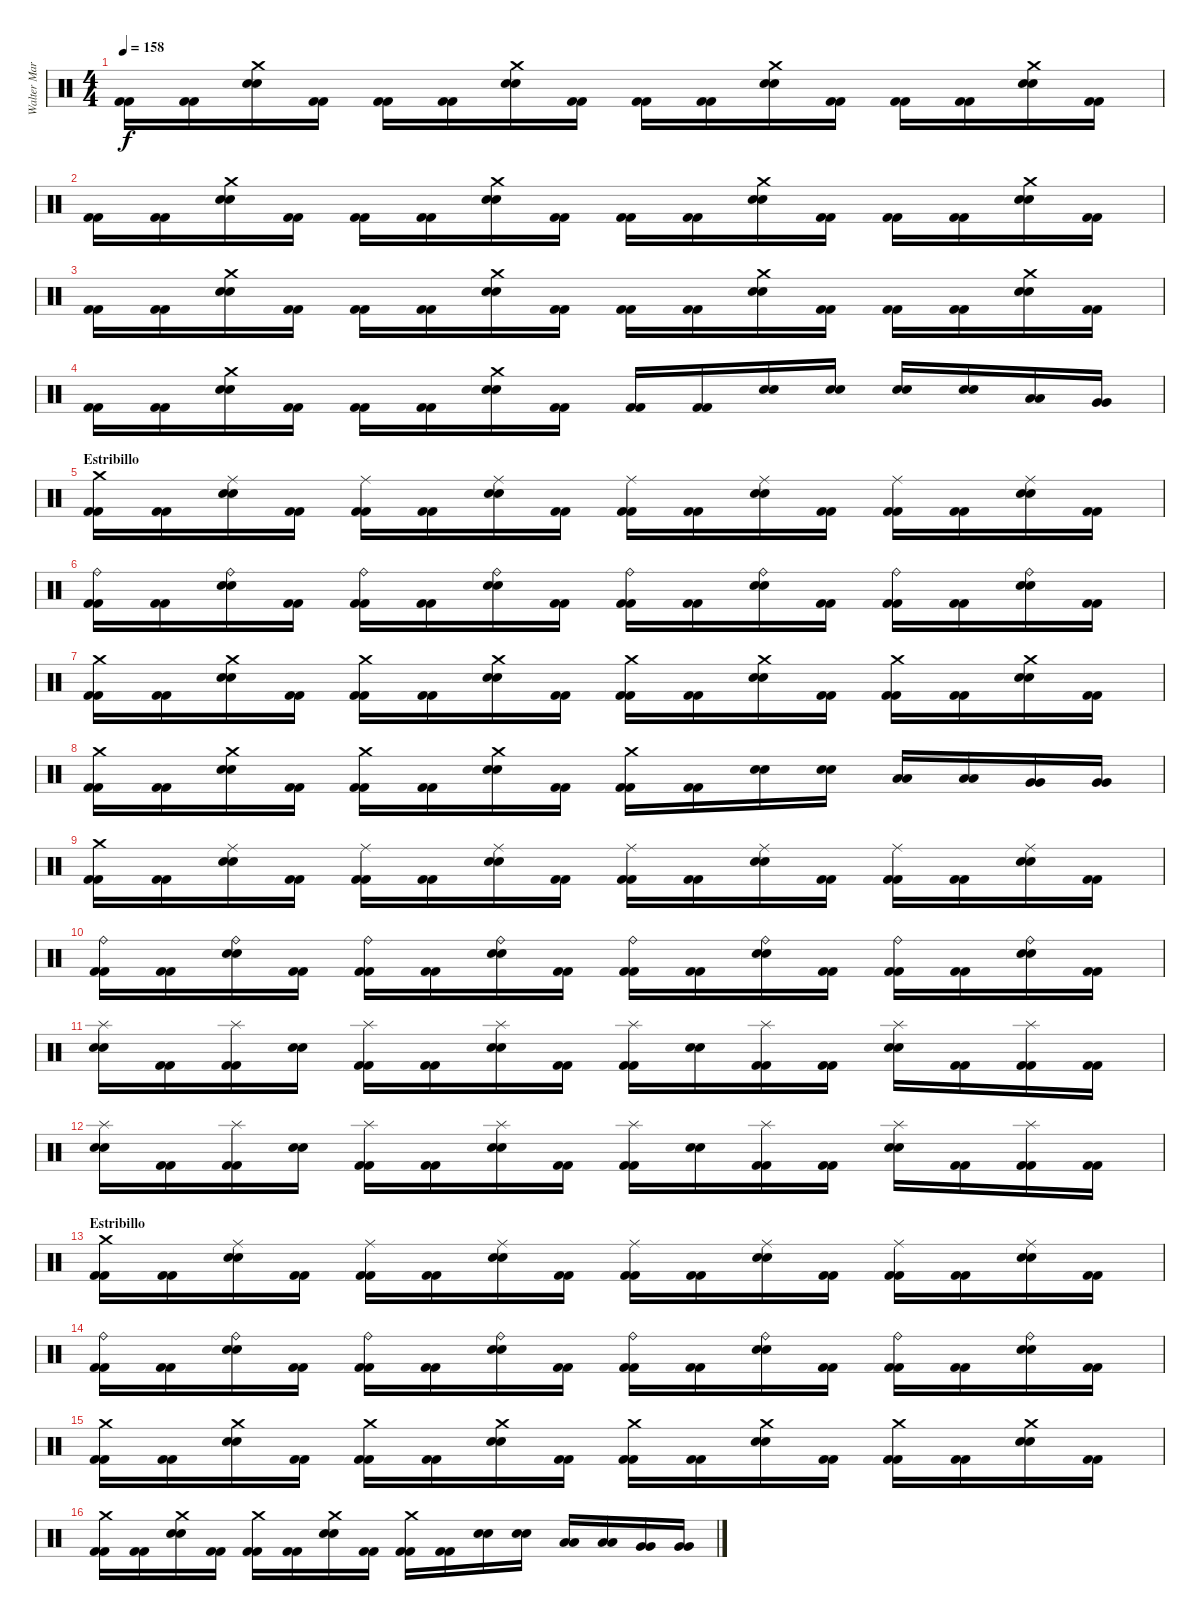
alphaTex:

\track ("Walter Martinez (Bateria)" "Walter Mar") {instrument percussion}
\staff {score}
\articulation defaults
\ts (4 4)
\tempo 158
\clef neutral
\ks c
("Kick (hit) 2" "Kick (hit) 2").16{dy f} ("Kick (hit) 2" "Kick (hit) 2").16 ("Crash medium (hit)" "Snare (hit) 2" "Snare (hit) 2").16 ("Kick (hit) 2" "Kick (hit) 2").16 ("Kick (hit) 2" "Kick (hit) 2").16 ("Kick (hit) 2" "Kick (hit) 2").16 ("Crash medium (hit)" "Snare (hit) 2" "Snare (hit) 2").16 ("Kick (hit) 2" "Kick (hit) 2").16 ("Kick (hit) 2" "Kick (hit) 2").16 ("Kick (hit) 2" "Kick (hit) 2").16 ("Crash medium (hit)" "Snare (hit) 2" "Snare (hit) 2").16 ("Kick (hit) 2" "Kick (hit) 2").16 ("Kick (hit) 2" "Kick (hit) 2").16 ("Kick (hit) 2" "Kick (hit) 2").16 ("Crash medium (hit)" "Snare (hit) 2" "Snare (hit) 2").16 ("Kick (hit) 2" "Kick (hit) 2").16 |
("Kick (hit) 2" "Kick (hit) 2").16 ("Kick (hit) 2" "Kick (hit) 2").16 ("Crash medium (hit)" "Snare (hit) 2" "Snare (hit) 2").16 ("Kick (hit) 2" "Kick (hit) 2").16 ("Kick (hit) 2" "Kick (hit) 2").16 ("Kick (hit) 2" "Kick (hit) 2").16 ("Crash medium (hit)" "Snare (hit) 2" "Snare (hit) 2").16 ("Kick (hit) 2" "Kick (hit) 2").16 ("Kick (hit) 2" "Kick (hit) 2").16 ("Kick (hit) 2" "Kick (hit) 2").16 ("Crash medium (hit)" "Snare (hit) 2" "Snare (hit) 2").16 ("Kick (hit) 2" "Kick (hit) 2").16 ("Kick (hit) 2" "Kick (hit) 2").16 ("Kick (hit) 2" "Kick (hit) 2").16 ("Crash medium (hit)" "Snare (hit) 2" "Snare (hit) 2").16 ("Kick (hit) 2" "Kick (hit) 2").16 |
("Kick (hit) 2" "Kick (hit) 2").16 ("Kick (hit) 2" "Kick (hit) 2").16 ("Crash medium (hit)" "Snare (hit) 2" "Snare (hit) 2").16 ("Kick (hit) 2" "Kick (hit) 2").16 ("Kick (hit) 2" "Kick (hit) 2").16 ("Kick (hit) 2" "Kick (hit) 2").16 ("Crash medium (hit)" "Snare (hit) 2" "Snare (hit) 2").16 ("Kick (hit) 2" "Kick (hit) 2").16 ("Kick (hit) 2" "Kick (hit) 2").16 ("Kick (hit) 2" "Kick (hit) 2").16 ("Crash medium (hit)" "Snare (hit) 2" "Snare (hit) 2").16 ("Kick (hit) 2" "Kick (hit) 2").16 ("Kick (hit) 2" "Kick (hit) 2").16 ("Kick (hit) 2" "Kick (hit) 2").16 ("Crash medium (hit)" "Snare (hit) 2" "Snare (hit) 2").16 ("Kick (hit) 2" "Kick (hit) 2").16 |
("Kick (hit) 2" "Kick (hit) 2").16 ("Kick (hit) 2" "Kick (hit) 2").16 ("Crash medium (hit)" "Snare (hit) 2" "Snare (hit) 2").16 ("Kick (hit) 2" "Kick (hit) 2").16 ("Kick (hit) 2" "Kick (hit) 2").16 ("Kick (hit) 2" "Kick (hit) 2").16 ("Crash medium (hit)" "Snare (hit) 2" "Snare (hit) 2").16 ("Kick (hit) 2" "Kick (hit) 2").16 ("Kick (hit) 2" "Kick (hit) 2").16 ("Kick (hit) 2" "Kick (hit) 2").16 ("Snare (hit) 2" "Snare (hit) 2").16 ("Snare (hit) 2" "Snare (hit) 2").16 ("Snare (hit) 2" "Snare (hit) 2").16 ("Snare (hit) 2" "Snare (hit) 2").16 ("Low Tom (hit)" "Low Tom (hit)").16 ("Very Low Tom (hit)" "Very Low Tom (hit)").16 |
\section ("" "Estribillo")
("Crash medium (hit)" "Kick (hit) 2" "Kick (hit) 2").16 ("Kick (hit) 2" "Kick (hit) 2").16 ("Ride (middle)" "Snare (hit) 2" "Snare (hit) 2").16 ("Kick (hit) 2" "Kick (hit) 2").16 ("Ride (middle)" "Kick (hit) 2" "Kick (hit) 2").16 ("Kick (hit) 2" "Kick (hit) 2").16 ("Ride (middle)" "Snare (hit) 2" "Snare (hit) 2").16 ("Kick (hit) 2" "Kick (hit) 2").16 ("Ride (middle)" "Kick (hit) 2" "Kick (hit) 2").16 ("Kick (hit) 2" "Kick (hit) 2").16 ("Ride (middle)" "Snare (hit) 2" "Snare (hit) 2").16 ("Kick (hit) 2" "Kick (hit) 2").16 ("Ride (middle)" "Kick (hit) 2" "Kick (hit) 2").16 ("Kick (hit) 2" "Kick (hit) 2").16 ("Ride (middle)" "Snare (hit) 2" "Snare (hit) 2").16 ("Kick (hit) 2" "Kick (hit) 2").16 |
("Ride (bell)" "Kick (hit) 2" "Kick (hit) 2").16 ("Kick (hit) 2" "Kick (hit) 2").16 ("Ride (bell)" "Snare (hit) 2" "Snare (hit) 2").16 ("Kick (hit) 2" "Kick (hit) 2").16 ("Ride (bell)" "Kick (hit) 2" "Kick (hit) 2").16 ("Kick (hit) 2" "Kick (hit) 2").16 ("Ride (bell)" "Snare (hit) 2" "Snare (hit) 2").16 ("Kick (hit) 2" "Kick (hit) 2").16 ("Ride (bell)" "Kick (hit) 2" "Kick (hit) 2").16 ("Kick (hit) 2" "Kick (hit) 2").16 ("Ride (bell)" "Snare (hit) 2" "Snare (hit) 2").16 ("Kick (hit) 2" "Kick (hit) 2").16 ("Ride (bell)" "Kick (hit) 2" "Kick (hit) 2").16 ("Kick (hit) 2" "Kick (hit) 2").16 ("Ride (bell)" "Snare (hit) 2" "Snare (hit) 2").16 ("Kick (hit) 2" "Kick (hit) 2").16 |
("Crash medium (hit)" "Kick (hit) 2" "Kick (hit) 2").16 ("Kick (hit) 2" "Kick (hit) 2").16 ("Crash medium (hit)" "Snare (hit) 2" "Snare (hit) 2").16 ("Kick (hit) 2" "Kick (hit) 2").16 ("Crash medium (hit)" "Kick (hit) 2" "Kick (hit) 2").16 ("Kick (hit) 2" "Kick (hit) 2").16 ("Crash medium (hit)" "Snare (hit) 2" "Snare (hit) 2").16 ("Kick (hit) 2" "Kick (hit) 2").16 ("Crash medium (hit)" "Kick (hit) 2" "Kick (hit) 2").16 ("Kick (hit) 2" "Kick (hit) 2").16 ("Crash medium (hit)" "Snare (hit) 2" "Snare (hit) 2").16 ("Kick (hit) 2" "Kick (hit) 2").16 ("Crash medium (hit)" "Kick (hit) 2" "Kick (hit) 2").16 ("Kick (hit) 2" "Kick (hit) 2").16 ("Crash medium (hit)" "Snare (hit) 2" "Snare (hit) 2").16 ("Kick (hit) 2" "Kick (hit) 2").16 |
("Crash medium (hit)" "Kick (hit) 2" "Kick (hit) 2").16 ("Kick (hit) 2" "Kick (hit) 2").16 ("Crash medium (hit)" "Snare (hit) 2" "Snare (hit) 2").16 ("Kick (hit) 2" "Kick (hit) 2").16 ("Crash medium (hit)" "Kick (hit) 2" "Kick (hit) 2").16 ("Kick (hit) 2" "Kick (hit) 2").16 ("Crash medium (hit)" "Snare (hit) 2" "Snare (hit) 2").16 ("Kick (hit) 2" "Kick (hit) 2").16 ("Crash medium (hit)" "Kick (hit) 2" "Kick (hit) 2").16 ("Kick (hit) 2" "Kick (hit) 2").16 ("Snare (hit) 2" "Snare (hit) 2").16 ("Snare (hit) 2" "Snare (hit) 2").16 ("Low Tom (hit)" "Low Tom (hit)").16 ("Low Tom (hit)" "Low Tom (hit)").16 ("Very Low Tom (hit)" "Very Low Tom (hit)").16 ("Very Low Tom (hit)" "Very Low Tom (hit)").16 |
("Crash medium (hit)" "Kick (hit) 2" "Kick (hit) 2").16 ("Kick (hit) 2" "Kick (hit) 2").16 ("Ride (middle)" "Snare (hit) 2" "Snare (hit) 2").16 ("Kick (hit) 2" "Kick (hit) 2").16 ("Ride (middle)" "Kick (hit) 2" "Kick (hit) 2").16 ("Kick (hit) 2" "Kick (hit) 2").16 ("Ride (middle)" "Snare (hit) 2" "Snare (hit) 2").16 ("Kick (hit) 2" "Kick (hit) 2").16 ("Ride (middle)" "Kick (hit) 2" "Kick (hit) 2").16 ("Kick (hit) 2" "Kick (hit) 2").16 ("Ride (middle)" "Snare (hit) 2" "Snare (hit) 2").16 ("Kick (hit) 2" "Kick (hit) 2").16 ("Ride (middle)" "Kick (hit) 2" "Kick (hit) 2").16 ("Kick (hit) 2" "Kick (hit) 2").16 ("Ride (middle)" "Snare (hit) 2" "Snare (hit) 2").16 ("Kick (hit) 2" "Kick (hit) 2").16 |
("Ride (bell)" "Kick (hit) 2" "Kick (hit) 2").16 ("Kick (hit) 2" "Kick (hit) 2").16 ("Ride (bell)" "Snare (hit) 2" "Snare (hit) 2").16 ("Kick (hit) 2" "Kick (hit) 2").16 ("Ride (bell)" "Kick (hit) 2" "Kick (hit) 2").16 ("Kick (hit) 2" "Kick (hit) 2").16 ("Ride (bell)" "Snare (hit) 2" "Snare (hit) 2").16 ("Kick (hit) 2" "Kick (hit) 2").16 ("Ride (bell)" "Kick (hit) 2" "Kick (hit) 2").16 ("Kick (hit) 2" "Kick (hit) 2").16 ("Ride (bell)" "Snare (hit) 2" "Snare (hit) 2").16 ("Kick (hit) 2" "Kick (hit) 2").16 ("Ride (bell)" "Kick (hit) 2" "Kick (hit) 2").16 ("Kick (hit) 2" "Kick (hit) 2").16 ("Ride (bell)" "Snare (hit) 2" "Snare (hit) 2").16 ("Kick (hit) 2" "Kick (hit) 2").16 |
("Splash (hit)" "Snare (hit) 2" "Snare (hit) 2").16 ("Kick (hit) 2" "Kick (hit) 2").16 ("Splash (hit)" "Kick (hit) 2" "Kick (hit) 2").16 ("Snare (hit) 2" "Snare (hit) 2").16 ("Splash (hit)" "Kick (hit) 2" "Kick (hit) 2").16 ("Kick (hit) 2" "Kick (hit) 2").16 ("Splash (hit)" "Snare (hit) 2" "Snare (hit) 2").16 ("Kick (hit) 2" "Kick (hit) 2").16 ("Splash (hit)" "Kick (hit) 2" "Kick (hit) 2").16 ("Snare (hit) 2" "Snare (hit) 2").16 ("Splash (hit)" "Kick (hit) 2" "Kick (hit) 2").16 ("Kick (hit) 2" "Kick (hit) 2").16 ("Splash (hit)" "Snare (hit) 2" "Snare (hit) 2").16 ("Kick (hit) 2" "Kick (hit) 2").16 ("Splash (hit)" "Kick (hit) 2" "Kick (hit) 2").16 ("Kick (hit) 2" "Kick (hit) 2").16 |
("Splash (hit)" "Snare (hit) 2" "Snare (hit) 2").16 ("Kick (hit) 2" "Kick (hit) 2").16 ("Splash (hit)" "Kick (hit) 2" "Kick (hit) 2").16 ("Snare (hit) 2" "Snare (hit) 2").16 ("Splash (hit)" "Kick (hit) 2" "Kick (hit) 2").16 ("Kick (hit) 2" "Kick (hit) 2").16 ("Splash (hit)" "Snare (hit) 2" "Snare (hit) 2").16 ("Kick (hit) 2" "Kick (hit) 2").16 ("Splash (hit)" "Kick (hit) 2" "Kick (hit) 2").16 ("Snare (hit) 2" "Snare (hit) 2").16 ("Splash (hit)" "Kick (hit) 2" "Kick (hit) 2").16 ("Kick (hit) 2" "Kick (hit) 2").16 ("Splash (hit)" "Snare (hit) 2" "Snare (hit) 2").16 ("Kick (hit) 2" "Kick (hit) 2").16 ("Splash (hit)" "Kick (hit) 2" "Kick (hit) 2").16 ("Kick (hit) 2" "Kick (hit) 2").16 |
\section ("" "Estribillo")
("Crash medium (hit)" "Kick (hit) 2" "Kick (hit) 2").16 ("Kick (hit) 2" "Kick (hit) 2").16 ("Ride (middle)" "Snare (hit) 2" "Snare (hit) 2").16 ("Kick (hit) 2" "Kick (hit) 2").16 ("Ride (middle)" "Kick (hit) 2" "Kick (hit) 2").16 ("Kick (hit) 2" "Kick (hit) 2").16 ("Ride (middle)" "Snare (hit) 2" "Snare (hit) 2").16 ("Kick (hit) 2" "Kick (hit) 2").16 ("Ride (middle)" "Kick (hit) 2" "Kick (hit) 2").16 ("Kick (hit) 2" "Kick (hit) 2").16 ("Ride (middle)" "Snare (hit) 2" "Snare (hit) 2").16 ("Kick (hit) 2" "Kick (hit) 2").16 ("Ride (middle)" "Kick (hit) 2" "Kick (hit) 2").16 ("Kick (hit) 2" "Kick (hit) 2").16 ("Ride (middle)" "Snare (hit) 2" "Snare (hit) 2").16 ("Kick (hit) 2" "Kick (hit) 2").16 |
("Ride (bell)" "Kick (hit) 2" "Kick (hit) 2").16 ("Kick (hit) 2" "Kick (hit) 2").16 ("Ride (bell)" "Snare (hit) 2" "Snare (hit) 2").16 ("Kick (hit) 2" "Kick (hit) 2").16 ("Ride (bell)" "Kick (hit) 2" "Kick (hit) 2").16 ("Kick (hit) 2" "Kick (hit) 2").16 ("Ride (bell)" "Snare (hit) 2" "Snare (hit) 2").16 ("Kick (hit) 2" "Kick (hit) 2").16 ("Ride (bell)" "Kick (hit) 2" "Kick (hit) 2").16 ("Kick (hit) 2" "Kick (hit) 2").16 ("Ride (bell)" "Snare (hit) 2" "Snare (hit) 2").16 ("Kick (hit) 2" "Kick (hit) 2").16 ("Ride (bell)" "Kick (hit) 2" "Kick (hit) 2").16 ("Kick (hit) 2" "Kick (hit) 2").16 ("Ride (bell)" "Snare (hit) 2" "Snare (hit) 2").16 ("Kick (hit) 2" "Kick (hit) 2").16 |
("Crash medium (hit)" "Kick (hit) 2" "Kick (hit) 2").16 ("Kick (hit) 2" "Kick (hit) 2").16 ("Crash medium (hit)" "Snare (hit) 2" "Snare (hit) 2").16 ("Kick (hit) 2" "Kick (hit) 2").16 ("Crash medium (hit)" "Kick (hit) 2" "Kick (hit) 2").16 ("Kick (hit) 2" "Kick (hit) 2").16 ("Crash medium (hit)" "Snare (hit) 2" "Snare (hit) 2").16 ("Kick (hit) 2" "Kick (hit) 2").16 ("Crash medium (hit)" "Kick (hit) 2" "Kick (hit) 2").16 ("Kick (hit) 2" "Kick (hit) 2").16 ("Crash medium (hit)" "Snare (hit) 2" "Snare (hit) 2").16 ("Kick (hit) 2" "Kick (hit) 2").16 ("Crash medium (hit)" "Kick (hit) 2" "Kick (hit) 2").16 ("Kick (hit) 2" "Kick (hit) 2").16 ("Crash medium (hit)" "Snare (hit) 2" "Snare (hit) 2").16 ("Kick (hit) 2" "Kick (hit) 2").16 |
("Crash medium (hit)" "Kick (hit) 2" "Kick (hit) 2").16 ("Kick (hit) 2" "Kick (hit) 2").16 ("Crash medium (hit)" "Snare (hit) 2" "Snare (hit) 2").16 ("Kick (hit) 2" "Kick (hit) 2").16 ("Crash medium (hit)" "Kick (hit) 2" "Kick (hit) 2").16 ("Kick (hit) 2" "Kick (hit) 2").16 ("Crash medium (hit)" "Snare (hit) 2" "Snare (hit) 2").16 ("Kick (hit) 2" "Kick (hit) 2").16 ("Crash medium (hit)" "Kick (hit) 2" "Kick (hit) 2").16 ("Kick (hit) 2" "Kick (hit) 2").16 ("Snare (hit) 2" "Snare (hit) 2").16 ("Snare (hit) 2" "Snare (hit) 2").16 ("Low Tom (hit)" "Low Tom (hit)").16 ("Low Tom (hit)" "Low Tom (hit)").16 ("Very Low Tom (hit)" "Very Low Tom (hit)").16 ("Very Low Tom (hit)" "Very Low Tom (hit)").16
